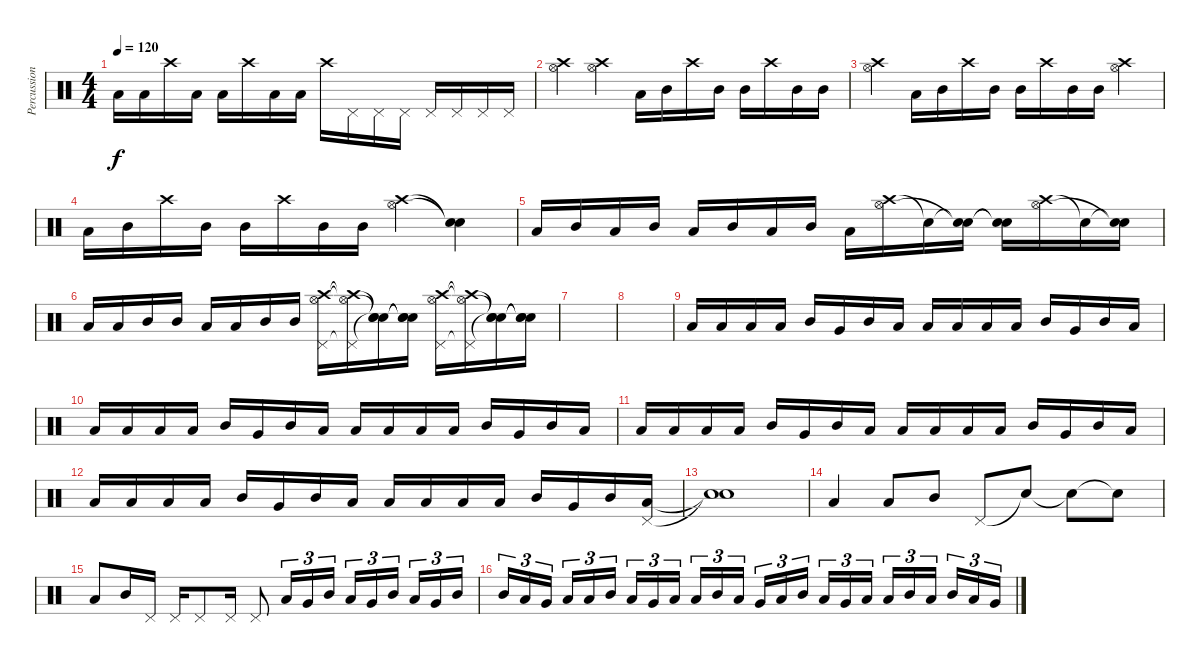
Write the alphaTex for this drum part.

\track ("Percussion" "Percussion") {instrument percussion}
\staff {score}
\articulation defaults
\ts (4 4)
\tempo 120
\clef neutral
\ks c "Low Tom (hit)".16{dy f} "Low Tom (hit)".16 "Crash high (hit)".16 "Low Tom (hit)".16 "Low Tom (hit)".16 "Crash high (hit)".16 "Low Tom (hit)".16 "Low Tom (hit)".16 "Crash high (hit)".16 "Pedal Hi-Hat (hit)".16 "Pedal Hi-Hat (hit)".16 "Pedal Hi-Hat (hit)".16 "Pedal Hi-Hat (hit)".16 "Pedal Hi-Hat (hit)".16 "Pedal Hi-Hat (hit)".16 "Pedal Hi-Hat (hit)".16
|
("Crash high (hit)" "Hi-Hat (open)").4 ("Crash high (hit)" "Hi-Hat (open)").4 "Low Tom (hit)".16 "Mid Tom (hit)".16 "Crash high (hit)".16 "Mid Tom (hit)".16 "Mid Tom (hit)".16 "Crash high (hit)".16 "Mid Tom (hit)".16 "Mid Tom (hit)".16 |
("Crash high (hit)" "Hi-Hat (open)").4 "Low Tom (hit)".16 "Mid Tom (hit)".16 "Crash high (hit)".16 "Mid Tom (hit)".16 "Mid Tom (hit)".16 "Crash high (hit)".16 "Mid Tom (hit)".16 "Mid Tom (hit)".16 ("Crash high (hit)" "Hi-Hat (open)").4 |
"Low Tom (hit)".16 "Mid Tom (hit)".16 "Crash high (hit)".16 "Mid Tom (hit)".16 "Mid Tom (hit)".16 "Crash high (hit)".16 "Mid Tom (hit)".16 "Mid Tom (hit)".16 ("Crash high (hit)" "Hi-Hat (open)").4 ("Snare (hit)"{t} "Snare (hit)"{t}).4 |
"Low Tom (hit)".16 "Mid Tom (hit)".16 "Low Tom (hit)".16 "Mid Tom (hit)".16 "Low Tom (hit)".16 "Mid Tom (hit)".16 "Low Tom (hit)".16 "Mid Tom (hit)".16 "Low Tom (hit)".16 ("Crash high (hit)" "Hi-Hat (open)").16 "Snare (hit)"{t}.16 ("Snare (hit)"{t} "Snare (hit)"{t}).16 ("Snare (hit)"{t} "Snare (hit)"{t}).16 ("Crash high (hit)" "Hi-Hat (open)").16 "Snare (hit)"{t}.16 ("Snare (hit)"{t} "Snare (hit)"{t}).16 |
"Low Tom (hit)".16 "Low Tom (hit)".16 "Mid Tom (hit)".16 "Mid Tom (hit)".16 "Low Tom (hit)".16 "Low Tom (hit)".16 "Mid Tom (hit)".16 "Mid Tom (hit)".16 ("Crash high (hit)" "Hi-Hat (open)" "Pedal Hi-Hat (hit)").16 ("Crash high (hit)"{t} "Hi-Hat (open)"{t} "Pedal Hi-Hat (hit)"{t}).16 ("Snare (hit)"{t} "Snare (hit)"{t} "Snare (hit)"{t}).16 ("Snare (hit)"{t} "Snare (hit)"{t} "Snare (hit)"{t}).16 ("Crash high (hit)" "Hi-Hat (open)" "Pedal Hi-Hat (hit)").16 ("Crash high (hit)"{t} "Hi-Hat (open)"{t} "Pedal Hi-Hat (hit)"{t}).16 ("Snare (hit)"{t} "Snare (hit)"{t} "Snare (hit)"{t}).16 ("Snare (hit)"{t} "Snare (hit)"{t} "Snare (hit)"{t}).16 |
|
|
"Low Tom (hit)".16 "Low Tom (hit)".16 "Low Tom (hit)".16 "Low Tom (hit)".16 "Mid Tom (hit)".16 "Very Low Tom (hit)".16 "Mid Tom (hit)".16 "Low Tom (hit)".16 "Low Tom (hit)".16 "Low Tom (hit)".16 "Low Tom (hit)".16 "Low Tom (hit)".16 "Mid Tom (hit)".16 "Very Low Tom (hit)".16 "Mid Tom (hit)".16 "Low Tom (hit)".16 |
"Low Tom (hit)".16 "Low Tom (hit)".16 "Low Tom (hit)".16 "Low Tom (hit)".16 "Mid Tom (hit)".16 "Very Low Tom (hit)".16 "Mid Tom (hit)".16 "Low Tom (hit)".16 "Low Tom (hit)".16 "Low Tom (hit)".16 "Low Tom (hit)".16 "Low Tom (hit)".16 "Mid Tom (hit)".16 "Very Low Tom (hit)".16 "Mid Tom (hit)".16 "Low Tom (hit)".16 |
"Low Tom (hit)".16 "Low Tom (hit)".16 "Low Tom (hit)".16 "Low Tom (hit)".16 "Mid Tom (hit)".16 "Very Low Tom (hit)".16 "Mid Tom (hit)".16 "Low Tom (hit)".16 "Low Tom (hit)".16 "Low Tom (hit)".16 "Low Tom (hit)".16 "Low Tom (hit)".16 "Mid Tom (hit)".16 "Very Low Tom (hit)".16 "Mid Tom (hit)".16 "Low Tom (hit)".16 |
"Low Tom (hit)".16 "Low Tom (hit)".16 "Low Tom (hit)".16 "Low Tom (hit)".16 "Mid Tom (hit)".16 "Very Low Tom (hit)".16 "Mid Tom (hit)".16 "Low Tom (hit)".16 "Low Tom (hit)".16 "Low Tom (hit)".16 "Low Tom (hit)".16 "Low Tom (hit)".16 "Mid Tom (hit)".16 "Very Low Tom (hit)".16 "Mid Tom (hit)".16 ("Pedal Hi-Hat (hit)" "Low Tom (hit)").16 |
("Snare (hit)"{t} "Snare (hit)"{t}).1 |
"Low Tom (hit)".4 "Low Tom (hit)".8 "Mid Tom (hit)".8 "Pedal Hi-Hat (hit)".8 "Snare (hit)"{t}.8 "Snare (hit)"{t}.8 "Snare (hit)"{t}.8 |
"Low Tom (hit)".8 "Mid Tom (hit)".16 "Pedal Hi-Hat (hit)".16 "Pedal Hi-Hat (hit)".16 "Pedal Hi-Hat (hit)".8 "Pedal Hi-Hat (hit)".16 "Pedal Hi-Hat (hit)".8 "Low Tom (hit)".16{tu (3 2)} "Very Low Tom (hit)".16{tu (3 2)} "Mid Tom (hit)".16{tu (3 2)} "Low Tom (hit)".16{tu (3 2)} "Very Low Tom (hit)".16{tu (3 2)} "Mid Tom (hit)".16{tu (3 2) beam splitsecondary} "Low Tom (hit)".16{tu (3 2)} "Very Low Tom (hit)".16{tu (3 2)} "Mid Tom (hit)".16{tu (3 2)} |
"Mid Tom (hit)".16{tu (3 2)} "Low Tom (hit)".16{tu (3 2)} "Very Low Tom (hit)".16{tu (3 2) beam splitsecondary} "Low Tom (hit)".16{tu (3 2)} "Low Tom (hit)".16{tu (3 2)} "Mid Tom (hit)".16{tu (3 2)} "Low Tom (hit)".16{tu (3 2)} "Very Low Tom (hit)".16{tu (3 2)} "Low Tom (hit)".16{tu (3 2) beam splitsecondary} "Low Tom (hit)".16{tu (3 2)} "Mid Tom (hit)".16{tu (3 2)} "Low Tom (hit)".16{tu (3 2)} "Very Low Tom (hit)".16{tu (3 2)} "Low Tom (hit)".16{tu (3 2)} "Mid Tom (hit)".16{tu (3 2) beam splitsecondary} "Low Tom (hit)".16{tu (3 2)} "Very Low Tom (hit)".16{tu (3 2)} "Low Tom (hit)".16{tu (3 2)} "Low Tom (hit)".16{tu (3 2)} "Mid Tom (hit)".16{tu (3 2)} "Low Tom (hit)".16{tu (3 2) beam splitsecondary} "Mid Tom (hit)".16{tu (3 2)} "Low Tom (hit)".16{tu (3 2)} "Very Low Tom (hit)".16{tu (3 2)}
